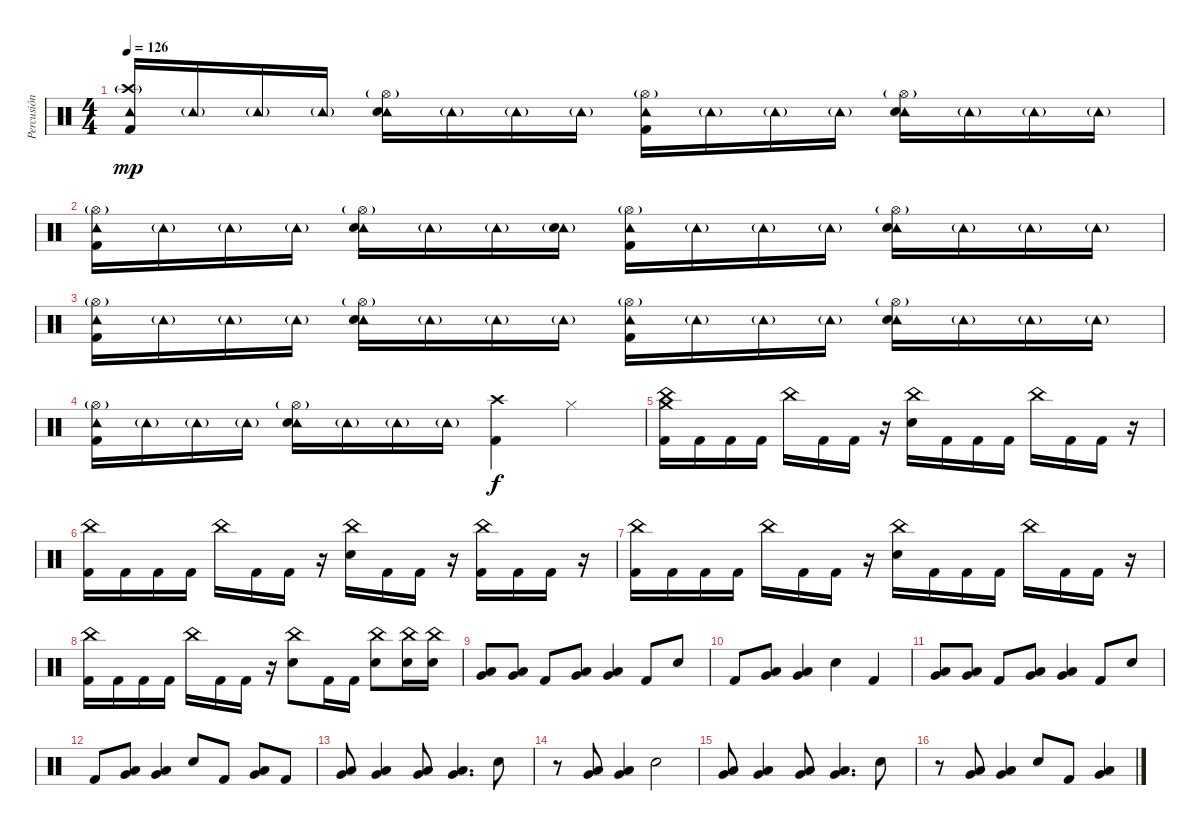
\track ("Percusión" "Percusión") {instrument percussion}
\staff {score}
\articulation defaults
\ts (4 4)
\tempo 126
\clef neutral
\ks c
("Tambourine (hit)" "Crash high (hit)"{g} "Kick (hit) 2").16{dy mp} "Tambourine (hit)"{g}.16 "Tambourine (hit)"{g}.16 "Tambourine (hit)"{g}.16 ("Tambourine (hit)" "Hi-Hat (open)"{g} "Electric Snare (hit)").16 "Tambourine (hit)"{g}.16 "Tambourine (hit)"{g}.16 "Tambourine (hit)"{g}.16 ("Tambourine (hit)" "Hi-Hat (open)"{g} "Kick (hit) 2").16 "Tambourine (hit)"{g}.16 "Tambourine (hit)"{g}.16 "Tambourine (hit)"{g}.16 ("Tambourine (hit)" "Hi-Hat (open)"{g} "Electric Snare (hit)").16 "Tambourine (hit)"{g}.16 "Tambourine (hit)"{g}.16 "Tambourine (hit)"{g}.16 |
("Tambourine (hit)" "Hi-Hat (open)"{g} "Kick (hit) 2").16 "Tambourine (hit)"{g}.16 "Tambourine (hit)"{g}.16 "Tambourine (hit)"{g}.16 ("Tambourine (hit)" "Hi-Hat (open)"{g} "Electric Snare (hit)").16 "Tambourine (hit)"{g}.16 "Tambourine (hit)"{g}.16 ("Tambourine (hit)"{g} "Electric Snare (hit)").16 ("Tambourine (hit)" "Hi-Hat (open)"{g} "Kick (hit) 2").16 "Tambourine (hit)"{g}.16 "Tambourine (hit)"{g}.16 "Tambourine (hit)"{g}.16 ("Tambourine (hit)" "Hi-Hat (open)"{g} "Electric Snare (hit)").16 "Tambourine (hit)"{g}.16 "Tambourine (hit)"{g}.16 "Tambourine (hit)"{g}.16 |
("Tambourine (hit)" "Hi-Hat (open)"{g} "Kick (hit) 2").16 "Tambourine (hit)"{g}.16 "Tambourine (hit)"{g}.16 "Tambourine (hit)"{g}.16 ("Tambourine (hit)" "Hi-Hat (open)"{g} "Electric Snare (hit)").16 "Tambourine (hit)"{g}.16 "Tambourine (hit)"{g}.16 "Tambourine (hit)"{g}.16 ("Tambourine (hit)" "Hi-Hat (open)"{g} "Kick (hit) 2").16 "Tambourine (hit)"{g}.16 "Tambourine (hit)"{g}.16 "Tambourine (hit)"{g}.16 ("Tambourine (hit)" "Hi-Hat (open)"{g} "Electric Snare (hit)").16 "Tambourine (hit)"{g}.16 "Tambourine (hit)"{g}.16 "Tambourine (hit)"{g}.16 |
("Tambourine (hit)" "Hi-Hat (open)"{g} "Kick (hit) 2").16 "Tambourine (hit)"{g}.16 "Tambourine (hit)"{g}.16 "Tambourine (hit)"{g}.16 ("Tambourine (hit)" "Hi-Hat (open)"{g} "Electric Snare (hit)").16 "Tambourine (hit)"{g}.16 "Tambourine (hit)"{g}.16 "Tambourine (hit)"{g}.16 ("Crash high (hit)" "Kick (hit) 2").4{dy f} "Hi-Hat (closed)".4 |
("Crash medium (hit)" "China (hit)" "Kick (hit) 2").16 "Kick (hit) 2".16 "Kick (hit) 2".16 "Kick (hit) 2".16 "China (hit)".16 "Kick (hit) 2".16 "Kick (hit) 2".16 r.16 ("China (hit)" "Electric Snare (hit)").16 "Kick (hit) 2".16 "Kick (hit) 2".16 "Kick (hit) 2".16 "China (hit)".16 "Kick (hit) 2".16 "Kick (hit) 2".16 r.16 |
("China (hit)" "Kick (hit) 2").16 "Kick (hit) 2".16 "Kick (hit) 2".16 "Kick (hit) 2".16 "China (hit)".16 "Kick (hit) 2".16 "Kick (hit) 2".16 r.16 ("China (hit)" "Electric Snare (hit)").16 "Kick (hit) 2".16 "Kick (hit) 2".16 r.16 ("China (hit)" "Kick (hit) 2").16 "Kick (hit) 2".16 "Kick (hit) 2".16 r.16 |
("China (hit)" "Kick (hit) 2").16 "Kick (hit) 2".16 "Kick (hit) 2".16 "Kick (hit) 2".16 "China (hit)".16 "Kick (hit) 2".16 "Kick (hit) 2".16 r.16 ("China (hit)" "Electric Snare (hit)").16 "Kick (hit) 2".16 "Kick (hit) 2".16 "Kick (hit) 2".16 "China (hit)".16 "Kick (hit) 2".16 "Kick (hit) 2".16 r.16 |
("China (hit)" "Kick (hit) 2").16 "Kick (hit) 2".16 "Kick (hit) 2".16 "Kick (hit) 2".16 "China (hit)".16 "Kick (hit) 2".16 "Kick (hit) 2".16 r.16 ("China (hit)" "Electric Snare (hit)").8 "Kick (hit) 2".16 "Kick (hit) 2".16 ("China (hit)" "Electric Snare (hit)").8 ("China (hit)" "Electric Snare (hit)").16 ("China (hit)" "Electric Snare (hit)").16 |
("Low Floor Tom (hit)" "Very Low Tom (hit)").8 ("Low Floor Tom (hit)" "Very Low Tom (hit)").8 "Kick (hit) 2".8 ("Low Floor Tom (hit)" "Very Low Tom (hit)").8 ("Low Floor Tom (hit)" "Very Low Tom (hit)").4 "Kick (hit) 2".8 "Electric Snare (hit)".8 |
"Kick (hit) 2".8 ("Low Floor Tom (hit)" "Very Low Tom (hit)").8 ("Low Floor Tom (hit)" "Very Low Tom (hit)").4 "Electric Snare (hit)".4 "Kick (hit) 2".4 |
("Low Floor Tom (hit)" "Very Low Tom (hit)").8 ("Low Floor Tom (hit)" "Very Low Tom (hit)").8 "Kick (hit) 2".8 ("Low Floor Tom (hit)" "Very Low Tom (hit)").8 ("Low Floor Tom (hit)" "Very Low Tom (hit)").4 "Kick (hit) 2".8 "Electric Snare (hit)".8 |
"Kick (hit) 2".8 ("Low Floor Tom (hit)" "Very Low Tom (hit)").8 ("Low Floor Tom (hit)" "Very Low Tom (hit)").4 "Electric Snare (hit)".8 "Kick (hit) 2".8 ("Low Floor Tom (hit)" "Very Low Tom (hit)").8 "Kick (hit) 2".8 |
("Low Floor Tom (hit)" "Very Low Tom (hit)").8 ("Low Floor Tom (hit)" "Very Low Tom (hit)").4 ("Low Floor Tom (hit)" "Very Low Tom (hit)").8 ("Low Floor Tom (hit)" "Very Low Tom (hit)").4{d} "Electric Snare (hit)".8 |
r.8 ("Low Floor Tom (hit)" "Very Low Tom (hit)").8 ("Low Floor Tom (hit)" "Very Low Tom (hit)").4 "Electric Snare (hit)".2 |
("Low Floor Tom (hit)" "Very Low Tom (hit)").8 ("Low Floor Tom (hit)" "Very Low Tom (hit)").4 ("Low Floor Tom (hit)" "Very Low Tom (hit)").8 ("Low Floor Tom (hit)" "Very Low Tom (hit)").4{d} "Electric Snare (hit)".8 |
r.8 ("Low Floor Tom (hit)" "Very Low Tom (hit)").8 ("Low Floor Tom (hit)" "Very Low Tom (hit)").4 "Electric Snare (hit)".8 "Kick (hit) 2".8 ("Low Floor Tom (hit)" "Very Low Tom (hit)").4
